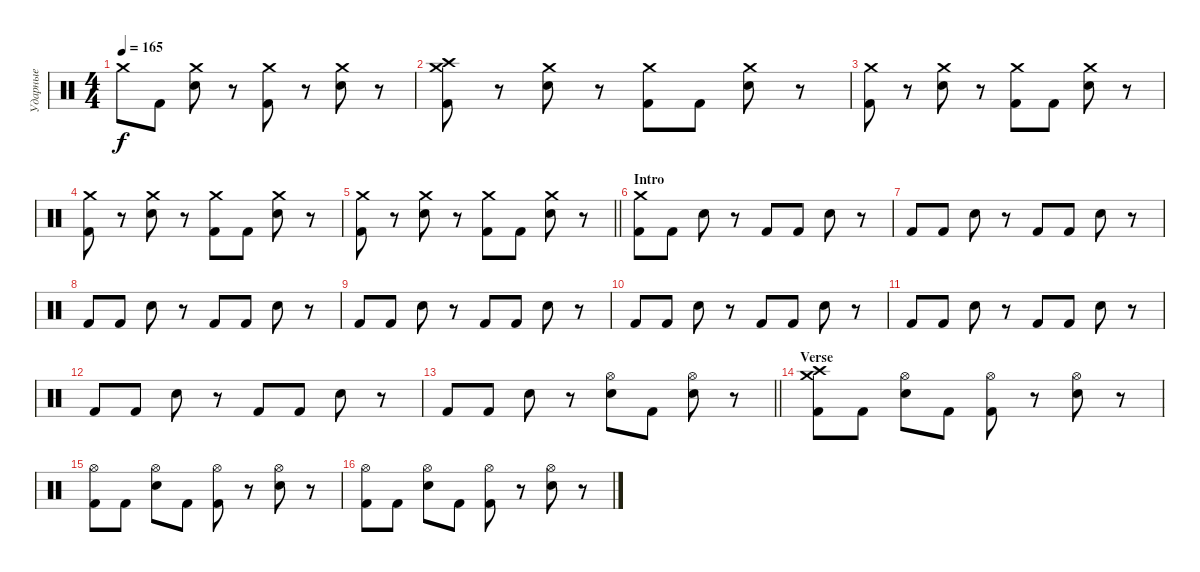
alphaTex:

\track ("Ударные" "Ударные") {instrument percussion}
\staff {score}
\articulation defaults
\ts (4 4)
\tempo 165
\clef neutral
\ks c "Crash medium (hit)".8{dy f} "Kick (hit) 2".8
("Crash medium (hit)" "Electric Snare (hit)").8 r.8 ("Crash medium (hit)" "Kick (hit) 2").8 r.8 ("Crash medium (hit)" "Electric Snare (hit)").8 r.8 |
("Crash medium (hit)" "Crash high (hit)" "Kick (hit) 2").8 r.8 ("Crash medium (hit)" "Electric Snare (hit)").8 r.8 ("Crash medium (hit)" "Kick (hit) 2").8 "Kick (hit) 2".8 ("Crash medium (hit)" "Electric Snare (hit)").8 r.8 |
("Crash medium (hit)" "Kick (hit) 2").8 r.8 ("Crash medium (hit)" "Electric Snare (hit)").8 r.8 ("Crash medium (hit)" "Kick (hit) 2").8 "Kick (hit) 2".8 ("Crash medium (hit)" "Electric Snare (hit)").8 r.8 |
("Crash medium (hit)" "Kick (hit) 2").8 r.8 ("Crash medium (hit)" "Electric Snare (hit)").8 r.8 ("Crash medium (hit)" "Kick (hit) 2").8 "Kick (hit) 2".8 ("Crash medium (hit)" "Electric Snare (hit)").8 r.8 |
\barLineRight lightlight
("Crash medium (hit)" "Kick (hit) 2").8 r.8 ("Crash medium (hit)" "Electric Snare (hit)").8 r.8 ("Crash medium (hit)" "Kick (hit) 2").8 "Kick (hit) 2".8 ("Crash medium (hit)" "Electric Snare (hit)").8 r.8 |
\section ("" "Intro")
("Crash medium (hit)" "Kick (hit) 2").8 "Kick (hit) 2".8 "Electric Snare (hit)".8 r.8 "Kick (hit) 2".8 "Kick (hit) 2".8 "Electric Snare (hit)".8 r.8 |
"Kick (hit) 2".8 "Kick (hit) 2".8 "Electric Snare (hit)".8 r.8 "Kick (hit) 2".8 "Kick (hit) 2".8 "Electric Snare (hit)".8 r.8 |
"Kick (hit) 2".8 "Kick (hit) 2".8 "Electric Snare (hit)".8 r.8 "Kick (hit) 2".8 "Kick (hit) 2".8 "Electric Snare (hit)".8 r.8 |
"Kick (hit) 2".8 "Kick (hit) 2".8 "Electric Snare (hit)".8 r.8 "Kick (hit) 2".8 "Kick (hit) 2".8 "Electric Snare (hit)".8 r.8 |
"Kick (hit) 2".8 "Kick (hit) 2".8 "Electric Snare (hit)".8 r.8 "Kick (hit) 2".8 "Kick (hit) 2".8 "Electric Snare (hit)".8 r.8 |
"Kick (hit) 2".8 "Kick (hit) 2".8 "Electric Snare (hit)".8 r.8 "Kick (hit) 2".8 "Kick (hit) 2".8 "Electric Snare (hit)".8 r.8 |
"Kick (hit) 2".8 "Kick (hit) 2".8 "Electric Snare (hit)".8 r.8 "Kick (hit) 2".8 "Kick (hit) 2".8 "Electric Snare (hit)".8 r.8 |
\barLineRight lightlight "Kick (hit) 2".8 "Kick (hit) 2".8 "Electric Snare (hit)".8
r.8 ("Hi-Hat (open)" "Electric Snare (hit)").8 "Kick (hit) 2".8 ("Hi-Hat (open)" "Electric Snare (hit)").8 r.8 |
\section ("" "Verse")
("Crash medium (hit)" "Crash high (hit)" "Kick (hit) 2").8 "Kick (hit) 2".8 ("Hi-Hat (open)" "Electric Snare (hit)").8 "Kick (hit) 2".8 ("Hi-Hat (open)" "Kick (hit) 2").8 r.8 ("Hi-Hat (open)" "Electric Snare (hit)").8 r.8 |
("Hi-Hat (open)" "Kick (hit) 2").8 "Kick (hit) 2".8 ("Hi-Hat (open)" "Electric Snare (hit)").8 "Kick (hit) 2".8 ("Hi-Hat (open)" "Kick (hit) 2").8 r.8 ("Hi-Hat (open)" "Electric Snare (hit)").8 r.8 |
("Hi-Hat (open)" "Kick (hit) 2").8 "Kick (hit) 2".8 ("Hi-Hat (open)" "Electric Snare (hit)").8 "Kick (hit) 2".8 ("Hi-Hat (open)" "Kick (hit) 2").8 r.8 ("Hi-Hat (open)" "Electric Snare (hit)").8 r.8
